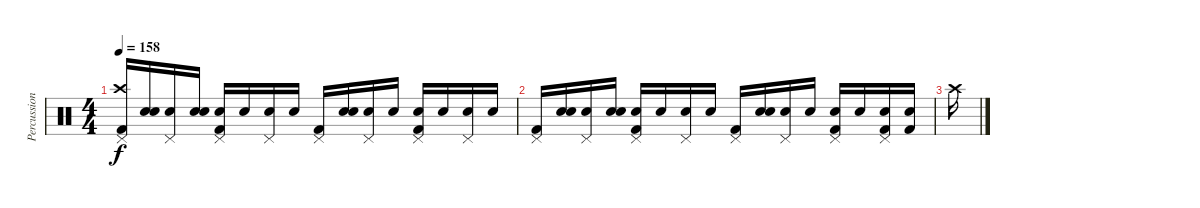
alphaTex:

\track ("Percussion" "Percussion") {instrument percussion}
\staff {score}
\articulation defaults
\ts (4 4)
\tempo 158
\clef neutral
\ks c
("Kick (hit) 2" "Crash high (hit)" "Pedal Hi-Hat (hit)").16{dy f} ("Snare (hit)" "Snare (hit)").16 ("Snare (hit)" "Pedal Hi-Hat (hit)").16 ("Snare (hit)" "Snare (hit)").16 ("Kick (hit) 2" "Electric Snare (hit)" "Pedal Hi-Hat (hit)").16 "Snare (hit)".16 ("Snare (hit)" "Pedal Hi-Hat (hit)").16 "Snare (hit)".16 ("Kick (hit) 2" "Pedal Hi-Hat (hit)").16 ("Snare (hit)" "Snare (hit)").16 ("Snare (hit)" "Pedal Hi-Hat (hit)").16 "Snare (hit)".16 ("Kick (hit) 2" "Electric Snare (hit)" "Pedal Hi-Hat (hit)").16 "Snare (hit)".16 ("Snare (hit)" "Pedal Hi-Hat (hit)").16 "Snare (hit)".16 |
("Kick (hit) 2" "Pedal Hi-Hat (hit)").16 ("Snare (hit)" "Snare (hit)").16 ("Snare (hit)" "Pedal Hi-Hat (hit)").16 ("Snare (hit)" "Snare (hit)").16 ("Kick (hit) 2" "Electric Snare (hit)" "Pedal Hi-Hat (hit)").16 "Snare (hit)".16 ("Snare (hit)" "Pedal Hi-Hat (hit)").16 "Snare (hit)".16 ("Kick (hit) 2" "Pedal Hi-Hat (hit)").16 ("Snare (hit)" "Snare (hit)").16 ("Snare (hit)" "Pedal Hi-Hat (hit)").16 "Snare (hit)".16 ("Kick (hit) 2" "Electric Snare (hit)" "Pedal Hi-Hat (hit)").16 "Snare (hit)".16 ("Kick (hit) 2" "Snare (hit) 2" "Pedal Hi-Hat (hit)").16 ("Kick (hit) 2" "Snare (hit) 2").16 |
"Crash high (hit)".16
